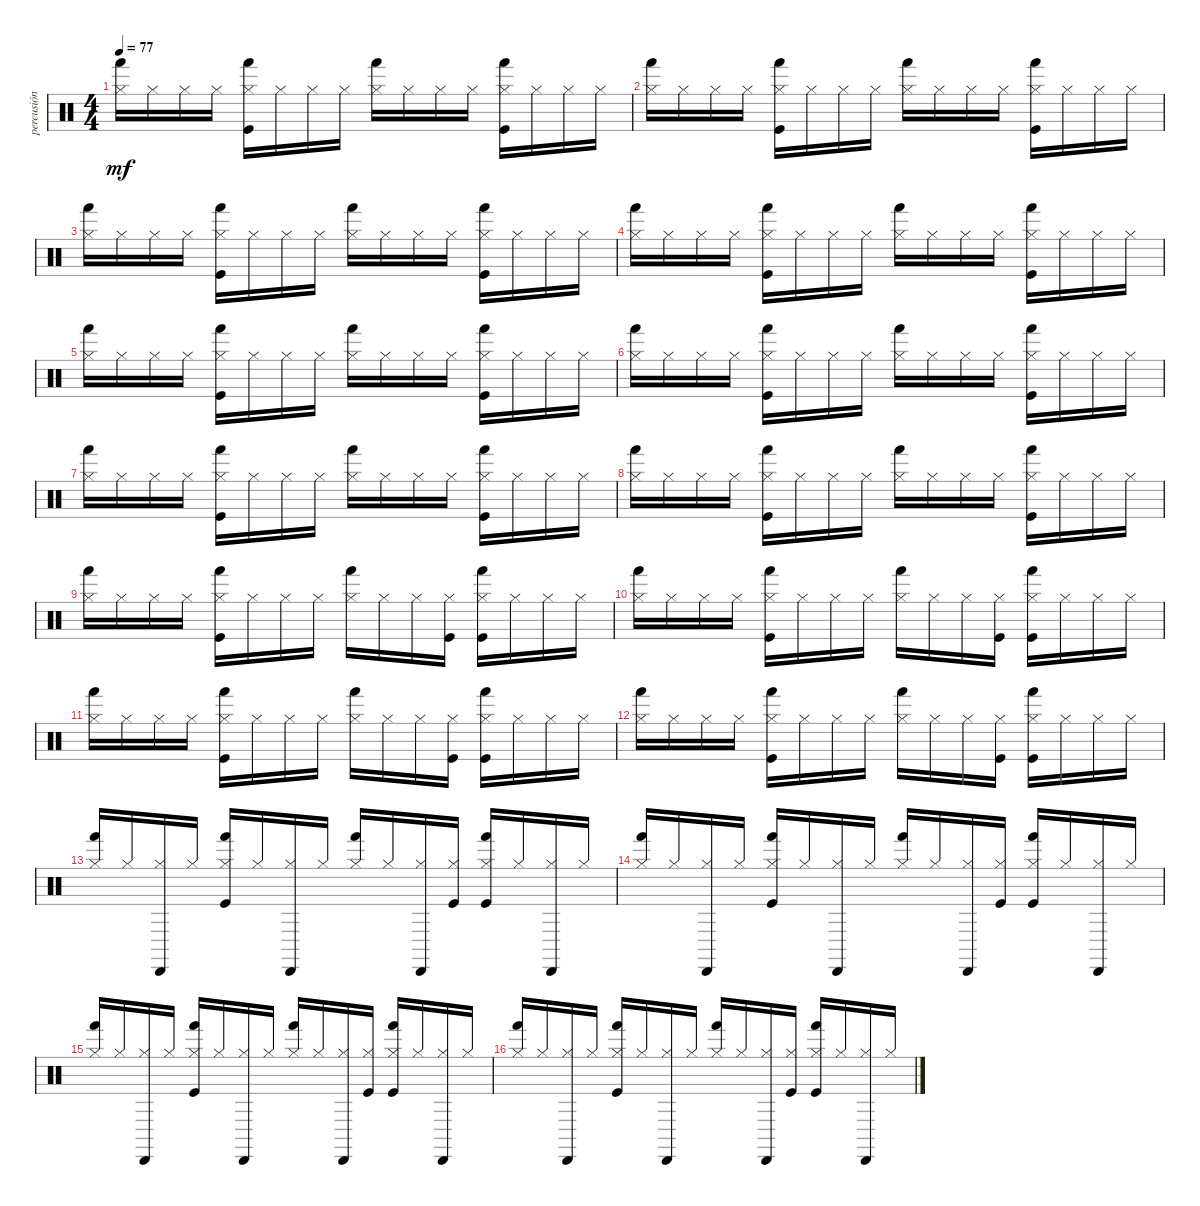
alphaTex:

\track ("percusión" "percusión") {instrument percussion}
\staff {score}
\articulation defaults
\ts (4 4)
\tempo 77
\clef neutral
\ks c
("Hand (hit)" "Hi-Hat (closed)").16{dy mf} "Hi-Hat (closed)".16 "Hi-Hat (closed)".16 "Hi-Hat (closed)".16 ("Kick (hit)" "Hand (hit)" "Hi-Hat (closed)").16 "Hi-Hat (closed)".16 "Hi-Hat (closed)".16 "Hi-Hat (closed)".16 ("Hand (hit)" "Hi-Hat (closed)").16 "Hi-Hat (closed)".16 "Hi-Hat (closed)".16 "Hi-Hat (closed)".16 ("Kick (hit)" "Hand (hit)" "Hi-Hat (closed)").16 "Hi-Hat (closed)".16 "Hi-Hat (closed)".16 "Hi-Hat (closed)".16 |
("Hand (hit)" "Hi-Hat (closed)").16 "Hi-Hat (closed)".16 "Hi-Hat (closed)".16 "Hi-Hat (closed)".16 ("Kick (hit)" "Hand (hit)" "Hi-Hat (closed)").16 "Hi-Hat (closed)".16 "Hi-Hat (closed)".16 "Hi-Hat (closed)".16 ("Hand (hit)" "Hi-Hat (closed)").16 "Hi-Hat (closed)".16 "Hi-Hat (closed)".16 "Hi-Hat (closed)".16 ("Kick (hit)" "Hand (hit)" "Hi-Hat (closed)").16 "Hi-Hat (closed)".16 "Hi-Hat (closed)".16 "Hi-Hat (closed)".16 |
("Hand (hit)" "Hi-Hat (closed)").16 "Hi-Hat (closed)".16 "Hi-Hat (closed)".16 "Hi-Hat (closed)".16 ("Kick (hit)" "Hand (hit)" "Hi-Hat (closed)").16 "Hi-Hat (closed)".16 "Hi-Hat (closed)".16 "Hi-Hat (closed)".16 ("Hand (hit)" "Hi-Hat (closed)").16 "Hi-Hat (closed)".16 "Hi-Hat (closed)".16 "Hi-Hat (closed)".16 ("Kick (hit)" "Hand (hit)" "Hi-Hat (closed)").16 "Hi-Hat (closed)".16 "Hi-Hat (closed)".16 "Hi-Hat (closed)".16 |
("Hand (hit)" "Hi-Hat (closed)").16 "Hi-Hat (closed)".16 "Hi-Hat (closed)".16 "Hi-Hat (closed)".16 ("Kick (hit)" "Hand (hit)" "Hi-Hat (closed)").16 "Hi-Hat (closed)".16 "Hi-Hat (closed)".16 "Hi-Hat (closed)".16 ("Hand (hit)" "Hi-Hat (closed)").16 "Hi-Hat (closed)".16 "Hi-Hat (closed)".16 "Hi-Hat (closed)".16 ("Kick (hit)" "Hand (hit)" "Hi-Hat (closed)").16 "Hi-Hat (closed)".16 "Hi-Hat (closed)".16 "Hi-Hat (closed)".16 |
("Hi-Hat (closed)" "Hand (hit)").16 "Hi-Hat (closed)".16 "Hi-Hat (closed)".16 "Hi-Hat (closed)".16 ("Kick (hit)" "Hand (hit)" "Hi-Hat (closed)").16 "Hi-Hat (closed)".16 "Hi-Hat (closed)".16 "Hi-Hat (closed)".16 ("Hand (hit)" "Hi-Hat (closed)").16 "Hi-Hat (closed)".16 "Hi-Hat (closed)".16 "Hi-Hat (closed)".16 ("Hi-Hat (closed)" "Hand (hit)" "Kick (hit)").16 "Hi-Hat (closed)".16 "Hi-Hat (closed)".16 "Hi-Hat (closed)".16 |
("Hi-Hat (closed)" "Hand (hit)").16 "Hi-Hat (closed)".16 "Hi-Hat (closed)".16 "Hi-Hat (closed)".16 ("Hi-Hat (closed)" "Hand (hit)" "Kick (hit)").16 "Hi-Hat (closed)".16 "Hi-Hat (closed)".16 "Hi-Hat (closed)".16 ("Hand (hit)" "Hi-Hat (closed)").16 "Hi-Hat (closed)".16 "Hi-Hat (closed)".16 "Hi-Hat (closed)".16 ("Hi-Hat (closed)" "Hand (hit)" "Kick (hit)").16 "Hi-Hat (closed)".16 "Hi-Hat (closed)".16 "Hi-Hat (closed)".16 |
("Hi-Hat (closed)" "Hand (hit)").16 "Hi-Hat (closed)".16 "Hi-Hat (closed)".16 "Hi-Hat (closed)".16 ("Hi-Hat (closed)" "Hand (hit)" "Kick (hit)").16 "Hi-Hat (closed)".16 "Hi-Hat (closed)".16 "Hi-Hat (closed)".16 ("Hi-Hat (closed)" "Hand (hit)").16 "Hi-Hat (closed)".16 "Hi-Hat (closed)".16 "Hi-Hat (closed)".16 ("Hi-Hat (closed)" "Hand (hit)" "Kick (hit)").16 "Hi-Hat (closed)".16 "Hi-Hat (closed)".16 "Hi-Hat (closed)".16 |
("Hand (hit)" "Hi-Hat (closed)").16 "Hi-Hat (closed)".16 "Hi-Hat (closed)".16 "Hi-Hat (closed)".16 ("Hi-Hat (closed)" "Hand (hit)" "Kick (hit)").16 "Hi-Hat (closed)".16 "Hi-Hat (closed)".16 "Hi-Hat (closed)".16 ("Hand (hit)" "Hi-Hat (closed)").16 "Hi-Hat (closed)".16 "Hi-Hat (closed)".16 "Hi-Hat (closed)".16 ("Kick (hit)" "Hand (hit)" "Hi-Hat (closed)").16 "Hi-Hat (closed)".16 "Hi-Hat (closed)".16 "Hi-Hat (closed)".16 |
("Hand (hit)" "Hi-Hat (closed)").16 "Hi-Hat (closed)".16 "Hi-Hat (closed)".16 "Hi-Hat (closed)".16 ("Kick (hit)" "Hand (hit)" "Hi-Hat (closed)").16 "Hi-Hat (closed)".16 "Hi-Hat (closed)".16 "Hi-Hat (closed)".16 ("Hand (hit)" "Hi-Hat (closed)").16 "Hi-Hat (closed)".16 "Hi-Hat (closed)".16 ("Hi-Hat (closed)" "Kick (hit)").16 ("Kick (hit)" "Hand (hit)" "Hi-Hat (closed)").16 "Hi-Hat (closed)".16 "Hi-Hat (closed)".16 "Hi-Hat (closed)".16 |
("Hand (hit)" "Hi-Hat (closed)").16 "Hi-Hat (closed)".16 "Hi-Hat (closed)".16 "Hi-Hat (closed)".16 ("Kick (hit)" "Hand (hit)" "Hi-Hat (closed)").16 "Hi-Hat (closed)".16 "Hi-Hat (closed)".16 "Hi-Hat (closed)".16 ("Hand (hit)" "Hi-Hat (closed)").16 "Hi-Hat (closed)".16 "Hi-Hat (closed)".16 ("Hi-Hat (closed)" "Kick (hit)").16 ("Kick (hit)" "Hand (hit)" "Hi-Hat (closed)").16 "Hi-Hat (closed)".16 "Hi-Hat (closed)".16 "Hi-Hat (closed)".16 |
("Hand (hit)" "Hi-Hat (closed)").16 "Hi-Hat (closed)".16 "Hi-Hat (closed)".16 "Hi-Hat (closed)".16 ("Kick (hit)" "Hand (hit)" "Hi-Hat (closed)").16 "Hi-Hat (closed)".16 "Hi-Hat (closed)".16 "Hi-Hat (closed)".16 ("Hand (hit)" "Hi-Hat (closed)").16 "Hi-Hat (closed)".16 "Hi-Hat (closed)".16 ("Hi-Hat (closed)" "Kick (hit)").16 ("Kick (hit)" "Hand (hit)" "Hi-Hat (closed)").16 "Hi-Hat (closed)".16 "Hi-Hat (closed)".16 "Hi-Hat (closed)".16 |
("Hand (hit)" "Hi-Hat (closed)").16 "Hi-Hat (closed)".16 "Hi-Hat (closed)".16 "Hi-Hat (closed)".16 ("Kick (hit)" "Hand (hit)" "Hi-Hat (closed)").16 "Hi-Hat (closed)".16 "Hi-Hat (closed)".16 "Hi-Hat (closed)".16 ("Hand (hit)" "Hi-Hat (closed)").16 "Hi-Hat (closed)".16 "Hi-Hat (closed)".16 ("Hi-Hat (closed)" "Kick (hit)").16 ("Kick (hit)" "Hand (hit)" "Hi-Hat (closed)").16 "Hi-Hat (closed)".16 "Hi-Hat (closed)".16 "Hi-Hat (closed)".16 |
("Hand (hit)" "Hi-Hat (closed)").16 "Hi-Hat (closed)".16 ("Hi-Hat (closed)" "Cabasa (hit)").16 "Hi-Hat (closed)".16 ("Kick (hit)" "Hand (hit)" "Hi-Hat (closed)").16 "Hi-Hat (closed)".16 ("Hi-Hat (closed)" "Cabasa (hit)").16 "Hi-Hat (closed)".16 ("Hand (hit)" "Hi-Hat (closed)").16 "Hi-Hat (closed)".16 ("Hi-Hat (closed)" "Cabasa (hit)").16 ("Hi-Hat (closed)" "Kick (hit)").16 ("Kick (hit)" "Hand (hit)" "Hi-Hat (closed)").16 "Hi-Hat (closed)".16 ("Hi-Hat (closed)" "Cabasa (hit)").16 "Hi-Hat (closed)".16 |
("Hand (hit)" "Hi-Hat (closed)").16 "Hi-Hat (closed)".16 ("Hi-Hat (closed)" "Cabasa (hit)").16 "Hi-Hat (closed)".16 ("Kick (hit)" "Hand (hit)" "Hi-Hat (closed)").16 "Hi-Hat (closed)".16 ("Hi-Hat (closed)" "Cabasa (hit)").16 "Hi-Hat (closed)".16 ("Hand (hit)" "Hi-Hat (closed)").16 "Hi-Hat (closed)".16 ("Hi-Hat (closed)" "Cabasa (hit)").16 ("Hi-Hat (closed)" "Kick (hit)").16 ("Kick (hit)" "Hand (hit)" "Hi-Hat (closed)").16 "Hi-Hat (closed)".16 ("Hi-Hat (closed)" "Cabasa (hit)").16 "Hi-Hat (closed)".16 |
("Hand (hit)" "Hi-Hat (closed)").16 "Hi-Hat (closed)".16 ("Hi-Hat (closed)" "Cabasa (hit)").16 "Hi-Hat (closed)".16 ("Kick (hit)" "Hand (hit)" "Hi-Hat (closed)").16 "Hi-Hat (closed)".16 ("Hi-Hat (closed)" "Cabasa (hit)").16 "Hi-Hat (closed)".16 ("Hand (hit)" "Hi-Hat (closed)").16 "Hi-Hat (closed)".16 ("Hi-Hat (closed)" "Cabasa (hit)").16 ("Hi-Hat (closed)" "Kick (hit)").16 ("Kick (hit)" "Hand (hit)" "Hi-Hat (closed)").16 "Hi-Hat (closed)".16 ("Hi-Hat (closed)" "Cabasa (hit)").16 "Hi-Hat (closed)".16 |
("Hand (hit)" "Hi-Hat (closed)").16 "Hi-Hat (closed)".16 ("Hi-Hat (closed)" "Cabasa (hit)").16 "Hi-Hat (closed)".16 ("Kick (hit)" "Hand (hit)" "Hi-Hat (closed)").16 "Hi-Hat (closed)".16 ("Hi-Hat (closed)" "Cabasa (hit)").16 "Hi-Hat (closed)".16 ("Hand (hit)" "Hi-Hat (closed)").16 "Hi-Hat (closed)".16 ("Hi-Hat (closed)" "Cabasa (hit)").16 ("Hi-Hat (closed)" "Kick (hit)").16 ("Kick (hit)" "Hand (hit)" "Hi-Hat (closed)").16 "Hi-Hat (closed)".16 ("Hi-Hat (closed)" "Cabasa (hit)").16 "Hi-Hat (closed)".16
